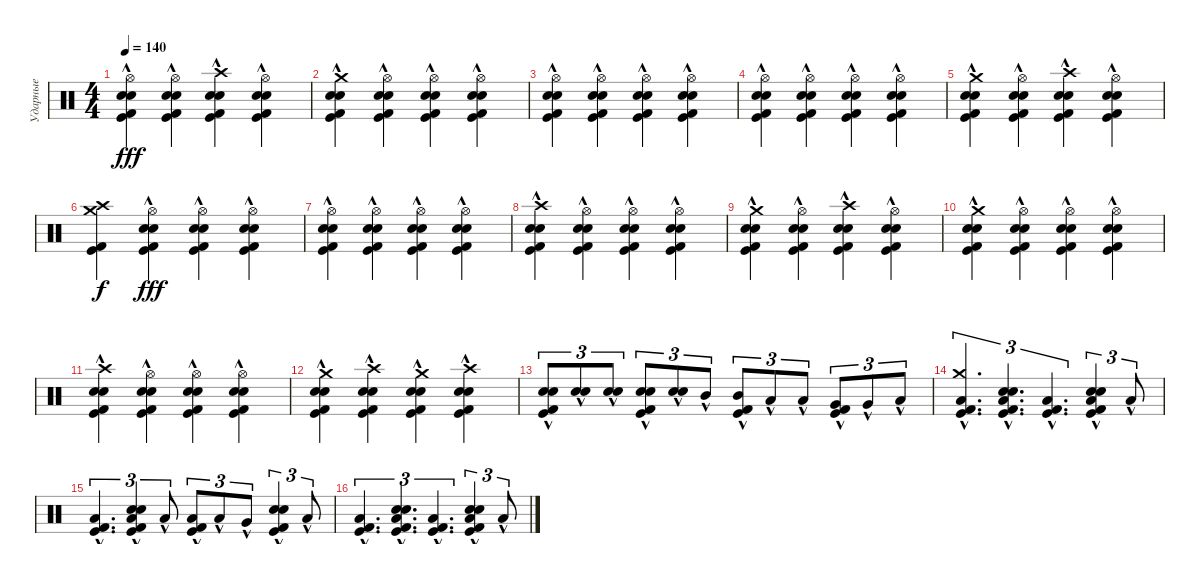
\track ("Ударные" "Ударные") {instrument percussion}
\staff {score}
\articulation defaults
\ts (4 4)
\tempo 140
\clef neutral
\ks c
("Hi-Hat (open)" "Kick (hit)" "Kick (hit) 2" "Snare (hit) 2"{hac} "Electric Snare (hit)"{hac}).4{dy fff} ("Hi-Hat (open)" "Kick (hit)" "Kick (hit) 2" "Snare (hit) 2"{hac} "Electric Snare (hit)"{hac}).4 ("Crash high (hit)" "Kick (hit)" "Kick (hit) 2" "Snare (hit) 2"{hac} "Electric Snare (hit)"{hac}).4 ("Hi-Hat (open)" "Kick (hit)" "Kick (hit) 2" "Snare (hit) 2"{hac} "Electric Snare (hit)"{hac}).4 |
("Crash medium (hit)" "Kick (hit)" "Kick (hit) 2" "Snare (hit) 2"{hac} "Electric Snare (hit)"{hac}).4 ("Hi-Hat (open)" "Kick (hit)" "Kick (hit) 2" "Snare (hit) 2"{hac} "Electric Snare (hit)"{hac}).4 ("Hi-Hat (open)" "Kick (hit)" "Kick (hit) 2" "Snare (hit) 2"{hac} "Electric Snare (hit)"{hac}).4 ("Hi-Hat (open)" "Kick (hit)" "Kick (hit) 2" "Snare (hit) 2"{hac} "Electric Snare (hit)"{hac}).4 |
("Hi-Hat (open)" "Kick (hit)" "Kick (hit) 2" "Snare (hit) 2"{hac} "Electric Snare (hit)"{hac}).4 ("Hi-Hat (open)" "Kick (hit)" "Kick (hit) 2" "Snare (hit) 2"{hac} "Electric Snare (hit)"{hac}).4 ("Hi-Hat (open)" "Kick (hit)" "Kick (hit) 2" "Snare (hit) 2"{hac} "Electric Snare (hit)"{hac}).4 ("Hi-Hat (open)" "Kick (hit)" "Kick (hit) 2" "Snare (hit) 2"{hac} "Electric Snare (hit)"{hac}).4 |
("Hi-Hat (open)" "Kick (hit)" "Kick (hit) 2" "Snare (hit) 2"{hac} "Electric Snare (hit)"{hac}).4 ("Hi-Hat (open)" "Kick (hit)" "Kick (hit) 2" "Snare (hit) 2"{hac} "Electric Snare (hit)"{hac}).4 ("Hi-Hat (open)" "Kick (hit)" "Kick (hit) 2" "Snare (hit) 2"{hac} "Electric Snare (hit)"{hac}).4 ("Hi-Hat (open)" "Kick (hit)" "Kick (hit) 2" "Snare (hit) 2"{hac} "Electric Snare (hit)"{hac}).4 |
("Crash medium (hit)" "Kick (hit)" "Kick (hit) 2" "Snare (hit) 2"{hac} "Electric Snare (hit)"{hac}).4 ("Hi-Hat (open)" "Kick (hit)" "Kick (hit) 2" "Snare (hit) 2"{hac} "Electric Snare (hit)"{hac}).4 ("Crash high (hit)" "Kick (hit)" "Kick (hit) 2" "Snare (hit) 2"{hac} "Electric Snare (hit)"{hac}).4 ("Hi-Hat (open)" "Kick (hit)" "Kick (hit) 2" "Snare (hit) 2"{hac} "Electric Snare (hit)"{hac}).4 |
("Crash medium (hit)" "Kick (hit)" "Kick (hit) 2" "Crash high (hit)").4{dy f} ("Hi-Hat (open)" "Kick (hit)" "Kick (hit) 2" "Snare (hit) 2"{hac} "Electric Snare (hit)"{hac}).4{dy fff} ("Hi-Hat (open)" "Kick (hit)" "Kick (hit) 2" "Snare (hit) 2"{hac} "Electric Snare (hit)"{hac}).4 ("Hi-Hat (open)" "Kick (hit)" "Kick (hit) 2" "Snare (hit) 2"{hac} "Electric Snare (hit)"{hac}).4 |
("Hi-Hat (open)" "Kick (hit)" "Kick (hit) 2" "Snare (hit) 2"{hac} "Electric Snare (hit)"{hac}).4 ("Hi-Hat (open)" "Kick (hit)" "Kick (hit) 2" "Snare (hit) 2"{hac} "Electric Snare (hit)"{hac}).4 ("Hi-Hat (open)" "Kick (hit)" "Kick (hit) 2" "Snare (hit) 2"{hac} "Electric Snare (hit)"{hac}).4 ("Hi-Hat (open)" "Kick (hit)" "Kick (hit) 2" "Snare (hit) 2"{hac} "Electric Snare (hit)"{hac}).4 |
("Crash high (hit)" "Kick (hit)" "Kick (hit) 2" "Snare (hit) 2"{hac} "Electric Snare (hit)"{hac}).4 ("Hi-Hat (open)" "Kick (hit)" "Kick (hit) 2" "Snare (hit) 2"{hac} "Electric Snare (hit)"{hac}).4 ("Hi-Hat (open)" "Kick (hit)" "Kick (hit) 2" "Snare (hit) 2"{hac} "Electric Snare (hit)"{hac}).4 ("Hi-Hat (open)" "Kick (hit)" "Kick (hit) 2" "Snare (hit) 2"{hac} "Electric Snare (hit)"{hac}).4 |
("Crash medium (hit)" "Kick (hit)" "Kick (hit) 2" "Snare (hit) 2"{hac} "Electric Snare (hit)"{hac}).4 ("Hi-Hat (open)" "Kick (hit)" "Kick (hit) 2" "Snare (hit) 2"{hac} "Electric Snare (hit)"{hac}).4 ("Crash high (hit)" "Kick (hit)" "Kick (hit) 2" "Snare (hit) 2"{hac} "Electric Snare (hit)"{hac}).4 ("Hi-Hat (open)" "Kick (hit)" "Kick (hit) 2" "Snare (hit) 2"{hac} "Electric Snare (hit)"{hac}).4 |
("Crash medium (hit)" "Kick (hit)" "Kick (hit) 2" "Snare (hit) 2"{hac} "Electric Snare (hit)"{hac}).4 ("Hi-Hat (open)" "Kick (hit)" "Kick (hit) 2" "Snare (hit) 2"{hac} "Electric Snare (hit)"{hac}).4 ("Hi-Hat (open)" "Kick (hit)" "Kick (hit) 2" "Snare (hit) 2"{hac} "Electric Snare (hit)"{hac}).4 ("Hi-Hat (open)" "Kick (hit)" "Kick (hit) 2" "Snare (hit) 2"{hac} "Electric Snare (hit)"{hac}).4 |
("Crash high (hit)" "Kick (hit)" "Kick (hit) 2" "Snare (hit) 2"{hac} "Electric Snare (hit)"{hac}).4 ("Hi-Hat (open)" "Kick (hit)" "Kick (hit) 2" "Snare (hit) 2"{hac} "Electric Snare (hit)"{hac}).4 ("Hi-Hat (open)" "Kick (hit)" "Kick (hit) 2" "Snare (hit) 2"{hac} "Electric Snare (hit)"{hac}).4 ("Hi-Hat (open)" "Kick (hit)" "Kick (hit) 2" "Snare (hit) 2"{hac} "Electric Snare (hit)"{hac}).4 |
("Crash medium (hit)" "Kick (hit)" "Kick (hit) 2" "Snare (hit) 2"{hac} "Electric Snare (hit)"{hac}).4 ("Crash high (hit)" "Kick (hit)" "Kick (hit) 2" "Snare (hit) 2"{hac} "Electric Snare (hit)"{hac}).4 ("Crash medium (hit)" "Kick (hit)" "Kick (hit) 2" "Snare (hit) 2"{hac} "Electric Snare (hit)"{hac}).4 ("Crash high (hit)" "Kick (hit)" "Kick (hit) 2" "Snare (hit) 2"{hac} "Electric Snare (hit)"{hac}).4 |
("Kick (hit)" "Kick (hit) 2" "Snare (hit) 2"{hac} "Electric Snare (hit)"{hac}).8{tu (3 2)} ("Snare (hit) 2"{hac} "Electric Snare (hit)"{hac}).8{tu (3 2)} ("Snare (hit) 2"{hac} "Electric Snare (hit)"{hac}).8{tu (3 2)} ("Kick (hit)" "Kick (hit) 2" "Snare (hit) 2"{hac} "Electric Snare (hit)"{hac}).8{tu (3 2)} ("Snare (hit) 2"{hac} "Electric Snare (hit)"{hac}).8{tu (3 2)} "Mid Tom (hit)"{hac}.8{tu (3 2)} ("Kick (hit)" "Kick (hit) 2" "Mid Tom (hit)"{hac}).8{tu (3 2)} "Low Tom (hit)"{hac}.8{tu (3 2)} "Low Tom (hit)"{hac}.8{tu (3 2)} ("Kick (hit)" "Kick (hit) 2" "Very Low Tom (hit)"{hac}).8{tu (3 2)} "Very Low Tom (hit)"{hac}.8{tu (3 2)} "Low Floor Tom (hit)"{hac}.8{tu (3 2)} |
("Crash medium (hit)" "Kick (hit)" "Kick (hit) 2" "Low Floor Tom (hit)"{hac}).4{d tu (3 2)} ("Kick (hit)" "Kick (hit) 2" "Snare (hit) 2"{hac} "Electric Snare (hit)"{hac} "Low Floor Tom (hit)"{hac}).4{d tu (3 2)} ("Kick (hit)" "Kick (hit) 2" "Low Floor Tom (hit)"{hac}).4{d tu (3 2)} ("Kick (hit)" "Kick (hit) 2" "Snare (hit) 2"{hac} "Electric Snare (hit)"{hac} "Low Floor Tom (hit)"{hac}).4{tu (3 2)} "Low Floor Tom (hit)"{hac}.8{tu (3 2)} |
("Kick (hit)" "Kick (hit) 2" "Low Floor Tom (hit)"{hac}).4{d tu (3 2)} ("Kick (hit)" "Kick (hit) 2" "Snare (hit) 2"{hac} "Electric Snare (hit)"{hac} "Low Floor Tom (hit)"{hac}).4{tu (3 2)} "Low Floor Tom (hit)"{hac}.8{tu (3 2)} ("Kick (hit)" "Kick (hit) 2" "Low Floor Tom (hit)"{hac}).8{tu (3 2)} "Low Tom (hit)"{hac}.8{tu (3 2)} "Very Low Tom (hit)"{hac}.8{tu (3 2)} ("Kick (hit)" "Kick (hit) 2" "Snare (hit) 2"{hac} "Electric Snare (hit)"{hac}).4{tu (3 2)} "Low Floor Tom (hit)"{hac}.8{tu (3 2)} |
("Kick (hit)" "Kick (hit) 2" "Low Floor Tom (hit)"{hac}).4{d tu (3 2)} ("Kick (hit)" "Kick (hit) 2" "Snare (hit) 2"{hac} "Electric Snare (hit)"{hac} "Low Floor Tom (hit)"{hac}).4{d tu (3 2)} ("Kick (hit)" "Kick (hit) 2" "Low Floor Tom (hit)"{hac}).4{d tu (3 2)} ("Kick (hit)" "Kick (hit) 2" "Snare (hit) 2"{hac} "Electric Snare (hit)"{hac} "Low Floor Tom (hit)"{hac}).4{tu (3 2)} "Low Floor Tom (hit)"{hac}.8{tu (3 2)}
